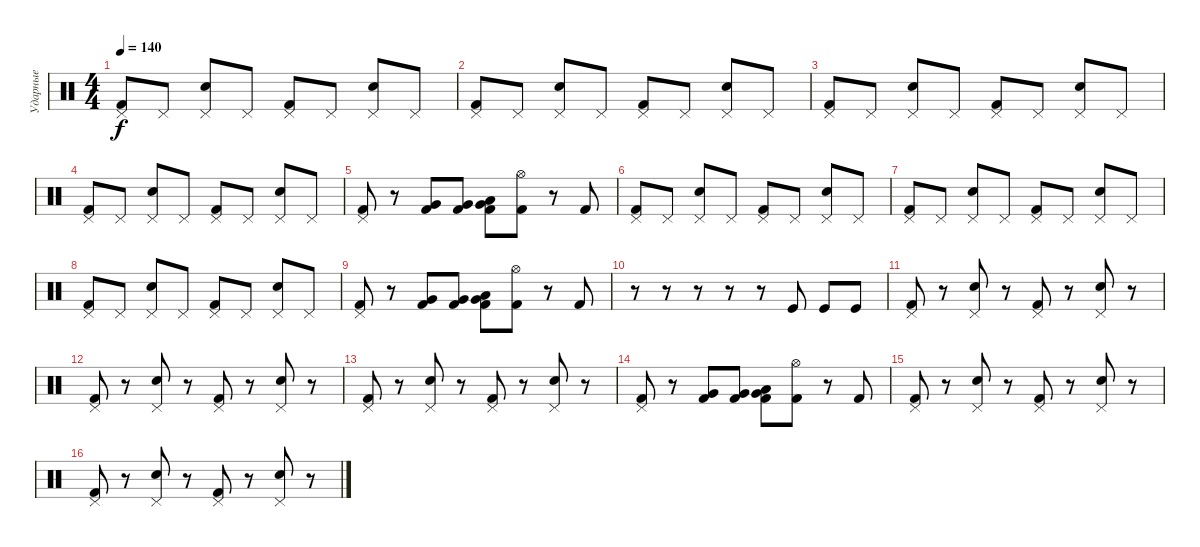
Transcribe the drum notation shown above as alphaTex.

\track ("Ударные" "Ударные") {instrument percussion}
\staff
\articulation defaults
\ts (4 4)
\tempo 140
\clef neutral
\ks c
("Pedal Hi-Hat (hit)" "Kick (hit) 2").8{dy f} "Pedal Hi-Hat (hit)".8 ("Pedal Hi-Hat (hit)" "Snare (hit) 2").8 "Pedal Hi-Hat (hit)".8 ("Pedal Hi-Hat (hit)" "Kick (hit) 2").8 "Pedal Hi-Hat (hit)".8 ("Pedal Hi-Hat (hit)" "Snare (hit) 2").8 "Pedal Hi-Hat (hit)".8 |
("Pedal Hi-Hat (hit)" "Kick (hit) 2").8 "Pedal Hi-Hat (hit)".8 ("Pedal Hi-Hat (hit)" "Snare (hit) 2").8 "Pedal Hi-Hat (hit)".8 ("Pedal Hi-Hat (hit)" "Kick (hit) 2").8 "Pedal Hi-Hat (hit)".8 ("Pedal Hi-Hat (hit)" "Snare (hit) 2").8 "Pedal Hi-Hat (hit)".8 |
("Pedal Hi-Hat (hit)" "Kick (hit) 2").8 "Pedal Hi-Hat (hit)".8 ("Pedal Hi-Hat (hit)" "Snare (hit) 2").8 "Pedal Hi-Hat (hit)".8 ("Pedal Hi-Hat (hit)" "Kick (hit) 2").8 "Pedal Hi-Hat (hit)".8 ("Pedal Hi-Hat (hit)" "Snare (hit) 2").8 "Pedal Hi-Hat (hit)".8 |
("Pedal Hi-Hat (hit)" "Kick (hit) 2").8 "Pedal Hi-Hat (hit)".8 ("Pedal Hi-Hat (hit)" "Snare (hit) 2").8 "Pedal Hi-Hat (hit)".8 ("Pedal Hi-Hat (hit)" "Kick (hit) 2").8 "Pedal Hi-Hat (hit)".8 ("Pedal Hi-Hat (hit)" "Snare (hit) 2").8 "Pedal Hi-Hat (hit)".8 |
("Pedal Hi-Hat (hit)" "Kick (hit) 2").8 r.8 ("Very Low Tom (hit)" "Kick (hit) 2").8 ("Very Low Tom (hit)" "Kick (hit) 2").8 ("Very Low Tom (hit)" "Low Tom (hit)" "Kick (hit) 2").8 ("Hi-Hat (open)" "Kick (hit) 2").8 r.8 "Kick (hit) 2".8 |
("Pedal Hi-Hat (hit)" "Kick (hit) 2").8 "Pedal Hi-Hat (hit)".8 ("Pedal Hi-Hat (hit)" "Snare (hit) 2").8 "Pedal Hi-Hat (hit)".8 ("Pedal Hi-Hat (hit)" "Kick (hit) 2").8 "Pedal Hi-Hat (hit)".8 ("Pedal Hi-Hat (hit)" "Snare (hit) 2").8 "Pedal Hi-Hat (hit)".8 |
("Pedal Hi-Hat (hit)" "Kick (hit) 2").8 "Pedal Hi-Hat (hit)".8 ("Pedal Hi-Hat (hit)" "Snare (hit) 2").8 "Pedal Hi-Hat (hit)".8 ("Pedal Hi-Hat (hit)" "Kick (hit) 2").8 "Pedal Hi-Hat (hit)".8 ("Pedal Hi-Hat (hit)" "Snare (hit) 2").8 "Pedal Hi-Hat (hit)".8 |
("Pedal Hi-Hat (hit)" "Kick (hit) 2").8 "Pedal Hi-Hat (hit)".8 ("Pedal Hi-Hat (hit)" "Snare (hit) 2").8 "Pedal Hi-Hat (hit)".8 ("Pedal Hi-Hat (hit)" "Kick (hit) 2").8 "Pedal Hi-Hat (hit)".8 ("Pedal Hi-Hat (hit)" "Snare (hit) 2").8 "Pedal Hi-Hat (hit)".8 |
("Pedal Hi-Hat (hit)" "Kick (hit) 2").8 r.8 ("Very Low Tom (hit)" "Kick (hit) 2").8 ("Very Low Tom (hit)" "Kick (hit) 2").8 ("Very Low Tom (hit)" "Low Tom (hit)" "Kick (hit) 2").8 ("Hi-Hat (open)" "Kick (hit) 2").8 r.8 "Kick (hit) 2".8 |
r.8 r.8 r.8 r.8 r.8 "Kick (hit)".8 "Kick (hit)".8 "Kick (hit)".8 |
("Pedal Hi-Hat (hit)" "Kick (hit) 2").8 r.8 ("Pedal Hi-Hat (hit)" "Snare (hit) 2").8 r.8 ("Pedal Hi-Hat (hit)" "Kick (hit) 2").8 r.8 ("Pedal Hi-Hat (hit)" "Snare (hit) 2").8 r.8 |
("Pedal Hi-Hat (hit)" "Kick (hit) 2").8 r.8 ("Pedal Hi-Hat (hit)" "Snare (hit) 2").8 r.8 ("Pedal Hi-Hat (hit)" "Kick (hit) 2").8 r.8 ("Pedal Hi-Hat (hit)" "Snare (hit) 2").8 r.8 |
("Pedal Hi-Hat (hit)" "Kick (hit) 2").8 r.8 ("Pedal Hi-Hat (hit)" "Snare (hit) 2").8 r.8 ("Pedal Hi-Hat (hit)" "Kick (hit) 2").8 r.8 ("Pedal Hi-Hat (hit)" "Snare (hit) 2").8 r.8 |
("Pedal Hi-Hat (hit)" "Kick (hit) 2").8 r.8 ("Very Low Tom (hit)" "Kick (hit) 2").8 ("Very Low Tom (hit)" "Kick (hit) 2").8 ("Very Low Tom (hit)" "Low Tom (hit)" "Kick (hit) 2").8 ("Hi-Hat (open)" "Kick (hit) 2").8 r.8 "Kick (hit) 2".8 |
("Pedal Hi-Hat (hit)" "Kick (hit) 2").8 r.8 ("Pedal Hi-Hat (hit)" "Snare (hit) 2").8 r.8 ("Pedal Hi-Hat (hit)" "Kick (hit) 2").8 r.8 ("Pedal Hi-Hat (hit)" "Snare (hit) 2").8 r.8 |
("Pedal Hi-Hat (hit)" "Kick (hit) 2").8 r.8 ("Pedal Hi-Hat (hit)" "Snare (hit) 2").8 r.8 ("Pedal Hi-Hat (hit)" "Kick (hit) 2").8 r.8 ("Pedal Hi-Hat (hit)" "Snare (hit) 2").8 r.8
